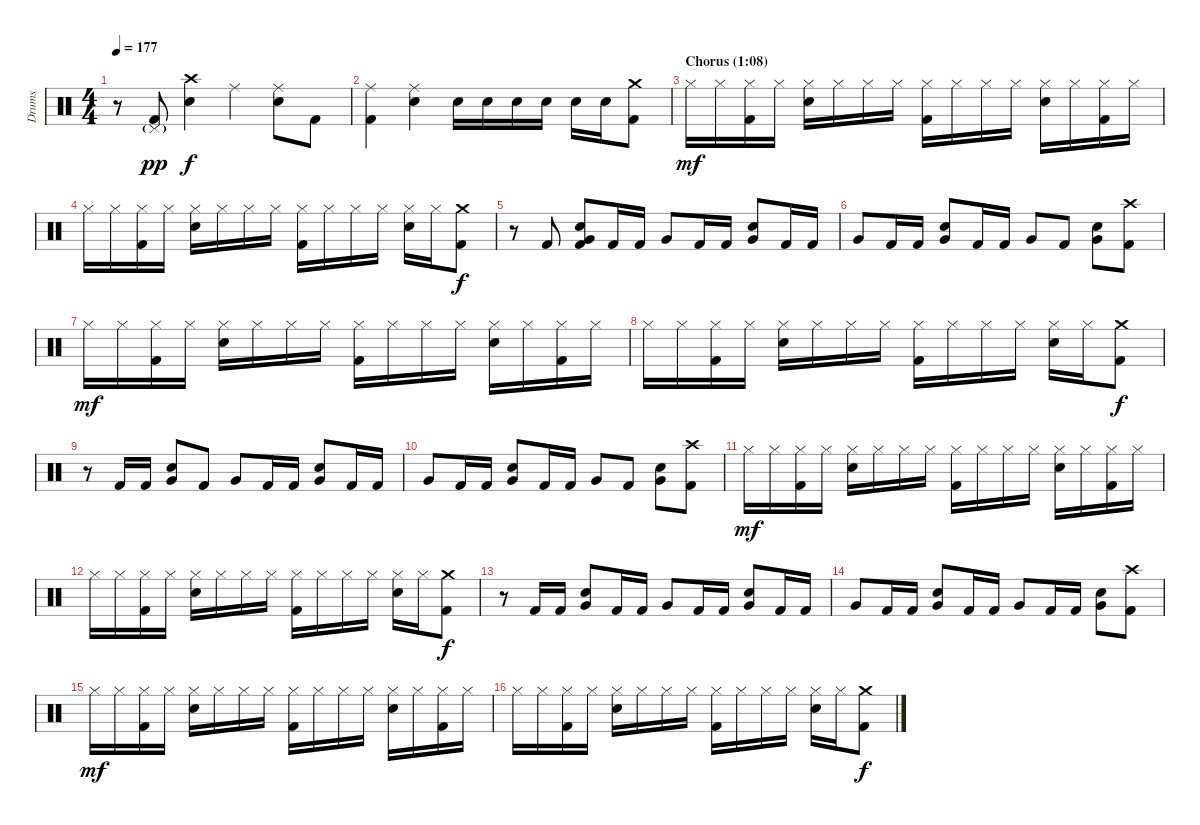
\track ("Drums" "Drums") {instrument percussion}
\staff {score}
\articulation defaults
\ts (4 4)
\tempo 177
\clef neutral
\ks c
r.8{dy f} ("Pedal Hi-Hat (hit)"{g} "Kick (hit) 2").8{dy pp} ("Crash high (hit)" "Snare (hit) 2").4{dy f} "Ride (middle)".4 ("Ride (middle)" "Snare (hit) 2").8 "Kick (hit) 2".8 |
("Ride (middle)" "Kick (hit) 2").4 ("Ride (middle)" "Snare (hit) 2").4 "Snare (hit) 2".16 "Snare (hit) 2".16 "Snare (hit) 2".16 "Snare (hit) 2".16 "Snare (hit) 2".16 "Snare (hit) 2".16 ("Crash medium (hit)" "Kick (hit) 2").8 |
\section ("" "Chorus (1:08)")
"Hi-Hat (closed)".16{dy mf} "Hi-Hat (closed)".16 ("Hi-Hat (closed)" "Kick (hit) 2").16 "Hi-Hat (closed)".16 ("Hi-Hat (closed)" "Snare (hit) 2").16 "Hi-Hat (closed)".16 "Hi-Hat (closed)".16 "Hi-Hat (closed)".16 ("Hi-Hat (closed)" "Kick (hit) 2").16 "Hi-Hat (closed)".16 "Hi-Hat (closed)".16 "Hi-Hat (closed)".16 ("Hi-Hat (closed)" "Snare (hit) 2").16 "Hi-Hat (closed)".16 ("Hi-Hat (closed)" "Kick (hit) 2").16 "Hi-Hat (closed)".16 |
"Hi-Hat (closed)".16 "Hi-Hat (closed)".16 ("Hi-Hat (closed)" "Kick (hit) 2").16 "Hi-Hat (closed)".16 ("Hi-Hat (closed)" "Snare (hit) 2").16 "Hi-Hat (closed)".16 "Hi-Hat (closed)".16 "Hi-Hat (closed)".16 ("Hi-Hat (closed)" "Kick (hit) 2").16 "Hi-Hat (closed)".16 "Hi-Hat (closed)".16 "Hi-Hat (closed)".16 ("Hi-Hat (closed)" "Snare (hit) 2").16 "Hi-Hat (closed)".16 ("Crash medium (hit)" "Kick (hit) 2").8{dy f} |
r.8 "Kick (hit) 2".8 ("Snare (hit) 2" "Very Low Tom (hit)" "Kick (hit) 2").8 "Kick (hit) 2".16 "Kick (hit) 2".16 "Very Low Tom (hit)".8 "Kick (hit) 2".16 "Kick (hit) 2".16 ("Snare (hit) 2" "Very Low Tom (hit)").8 "Kick (hit) 2".16 "Kick (hit) 2".16 |
"Very Low Tom (hit)".8 "Kick (hit) 2".16 "Kick (hit) 2".16 ("Snare (hit) 2" "Very Low Tom (hit)").8 "Kick (hit) 2".16 "Kick (hit) 2".16 "Very Low Tom (hit)".8 "Kick (hit) 2".8 ("Snare (hit) 2" "Very Low Tom (hit)").8 ("Crash high (hit)" "Kick (hit) 2").8 |
"Hi-Hat (closed)".16{dy mf} "Hi-Hat (closed)".16 ("Hi-Hat (closed)" "Kick (hit) 2").16 "Hi-Hat (closed)".16 ("Hi-Hat (closed)" "Snare (hit) 2").16 "Hi-Hat (closed)".16 "Hi-Hat (closed)".16 "Hi-Hat (closed)".16 ("Hi-Hat (closed)" "Kick (hit) 2").16 "Hi-Hat (closed)".16 "Hi-Hat (closed)".16 "Hi-Hat (closed)".16 ("Hi-Hat (closed)" "Snare (hit) 2").16 "Hi-Hat (closed)".16 ("Hi-Hat (closed)" "Kick (hit) 2").16 "Hi-Hat (closed)".16 |
"Hi-Hat (closed)".16 "Hi-Hat (closed)".16 ("Hi-Hat (closed)" "Kick (hit) 2").16 "Hi-Hat (closed)".16 ("Hi-Hat (closed)" "Snare (hit) 2").16 "Hi-Hat (closed)".16 "Hi-Hat (closed)".16 "Hi-Hat (closed)".16 ("Hi-Hat (closed)" "Kick (hit) 2").16 "Hi-Hat (closed)".16 "Hi-Hat (closed)".16 "Hi-Hat (closed)".16 ("Hi-Hat (closed)" "Snare (hit) 2").16 "Hi-Hat (closed)".16 ("Crash medium (hit)" "Kick (hit) 2").8{dy f} |
r.8 "Kick (hit) 2".16 "Kick (hit) 2".16 ("Snare (hit) 2" "Very Low Tom (hit)").8 "Kick (hit) 2".8 "Very Low Tom (hit)".8 "Kick (hit) 2".16 "Kick (hit) 2".16 ("Snare (hit) 2" "Very Low Tom (hit)").8 "Kick (hit) 2".16 "Kick (hit) 2".16 |
"Very Low Tom (hit)".8 "Kick (hit) 2".16 "Kick (hit) 2".16 ("Snare (hit) 2" "Very Low Tom (hit)").8 "Kick (hit) 2".16 "Kick (hit) 2".16 "Very Low Tom (hit)".8 "Kick (hit) 2".8 ("Snare (hit) 2" "Very Low Tom (hit)").8 ("Crash high (hit)" "Kick (hit) 2").8 |
"Hi-Hat (closed)".16{dy mf} "Hi-Hat (closed)".16 ("Hi-Hat (closed)" "Kick (hit) 2").16 "Hi-Hat (closed)".16 ("Hi-Hat (closed)" "Snare (hit) 2").16 "Hi-Hat (closed)".16 "Hi-Hat (closed)".16 "Hi-Hat (closed)".16 ("Hi-Hat (closed)" "Kick (hit) 2").16 "Hi-Hat (closed)".16 "Hi-Hat (closed)".16 "Hi-Hat (closed)".16 ("Hi-Hat (closed)" "Snare (hit) 2").16 "Hi-Hat (closed)".16 ("Hi-Hat (closed)" "Kick (hit) 2").16 "Hi-Hat (closed)".16 |
"Hi-Hat (closed)".16 "Hi-Hat (closed)".16 ("Hi-Hat (closed)" "Kick (hit) 2").16 "Hi-Hat (closed)".16 ("Hi-Hat (closed)" "Snare (hit) 2").16 "Hi-Hat (closed)".16 "Hi-Hat (closed)".16 "Hi-Hat (closed)".16 ("Hi-Hat (closed)" "Kick (hit) 2").16 "Hi-Hat (closed)".16 "Hi-Hat (closed)".16 "Hi-Hat (closed)".16 ("Hi-Hat (closed)" "Snare (hit) 2").16 "Hi-Hat (closed)".16 ("Crash medium (hit)" "Kick (hit) 2").8{dy f} |
r.8 "Kick (hit) 2".16 "Kick (hit) 2".16 ("Snare (hit) 2" "Very Low Tom (hit)").8 "Kick (hit) 2".16 "Kick (hit) 2".16 "Very Low Tom (hit)".8 "Kick (hit) 2".16 "Kick (hit) 2".16 ("Snare (hit) 2" "Very Low Tom (hit)").8 "Kick (hit) 2".16 "Kick (hit) 2".16 |
"Very Low Tom (hit)".8 "Kick (hit) 2".16 "Kick (hit) 2".16 ("Snare (hit) 2" "Very Low Tom (hit)").8 "Kick (hit) 2".16 "Kick (hit) 2".16 "Very Low Tom (hit)".8 "Kick (hit) 2".16 "Kick (hit) 2".16 ("Snare (hit) 2" "Very Low Tom (hit)").8 ("Crash high (hit)" "Kick (hit) 2").8 |
"Hi-Hat (closed)".16{dy mf} "Hi-Hat (closed)".16 ("Hi-Hat (closed)" "Kick (hit) 2").16 "Hi-Hat (closed)".16 ("Hi-Hat (closed)" "Snare (hit) 2").16 "Hi-Hat (closed)".16 "Hi-Hat (closed)".16 "Hi-Hat (closed)".16 ("Hi-Hat (closed)" "Kick (hit) 2").16 "Hi-Hat (closed)".16 "Hi-Hat (closed)".16 "Hi-Hat (closed)".16 ("Hi-Hat (closed)" "Snare (hit) 2").16 "Hi-Hat (closed)".16 ("Hi-Hat (closed)" "Kick (hit) 2").16 "Hi-Hat (closed)".16 |
"Hi-Hat (closed)".16 "Hi-Hat (closed)".16 ("Hi-Hat (closed)" "Kick (hit) 2").16 "Hi-Hat (closed)".16 ("Hi-Hat (closed)" "Snare (hit) 2").16 "Hi-Hat (closed)".16 "Hi-Hat (closed)".16 "Hi-Hat (closed)".16 ("Hi-Hat (closed)" "Kick (hit) 2").16 "Hi-Hat (closed)".16 "Hi-Hat (closed)".16 "Hi-Hat (closed)".16 ("Hi-Hat (closed)" "Snare (hit) 2").16 "Hi-Hat (closed)".16 ("Crash medium (hit)" "Kick (hit) 2").8{dy f}
